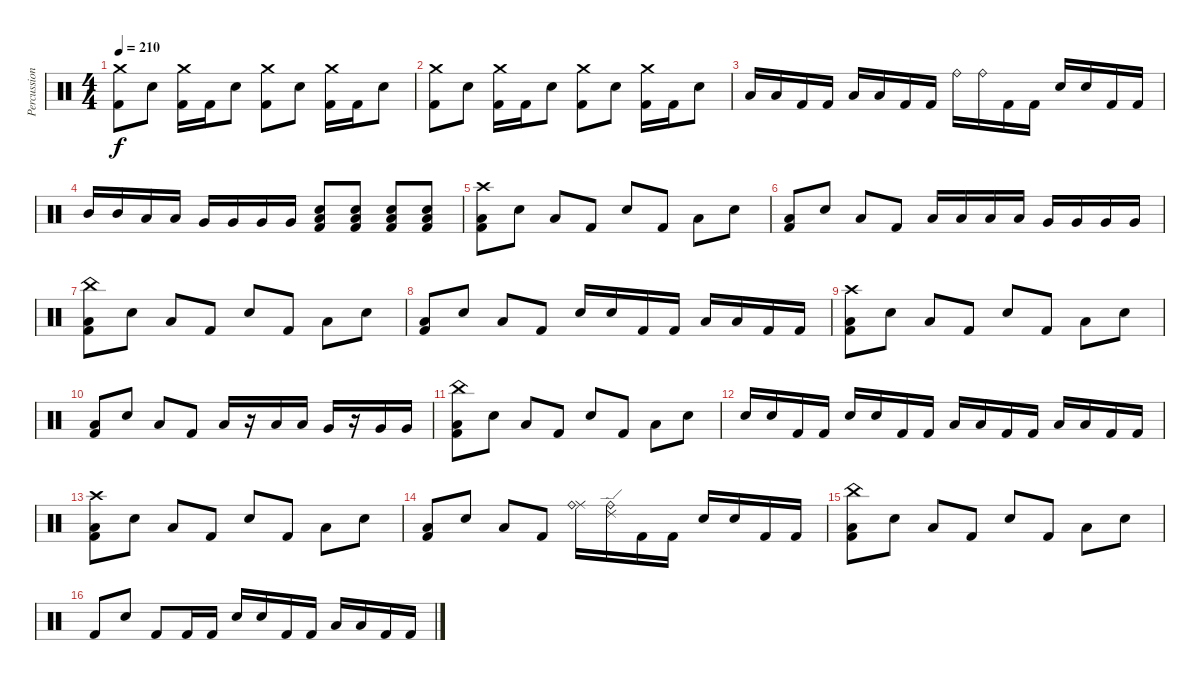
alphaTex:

\track ("Percussion" "Percussion") {instrument percussion}
\staff {score}
\articulation defaults
\ts (4 4)
\tempo 210
\clef neutral
\ks c
("Crash medium (hit)" "Kick (hit) 2").8{dy f} "Electric Snare (hit)".8 ("Crash medium (hit)" "Kick (hit) 2").16 "Kick (hit) 2".16 "Electric Snare (hit)".8 ("Crash medium (hit)" "Kick (hit) 2").8 "Electric Snare (hit)".8 ("Crash medium (hit)" "Kick (hit) 2").16 "Kick (hit) 2".16 "Electric Snare (hit)".8 |
("Crash medium (hit)" "Kick (hit) 2").8 "Electric Snare (hit)".8 ("Crash medium (hit)" "Kick (hit) 2").16 "Kick (hit) 2".16 "Electric Snare (hit)".8 ("Crash medium (hit)" "Kick (hit) 2").8 "Electric Snare (hit)".8 ("Crash medium (hit)" "Kick (hit) 2").16 "Kick (hit) 2".16 "Electric Snare (hit)".8 |
"Low Tom (hit)".16 "Low Tom (hit)".16 "Kick (hit) 2".16 "Kick (hit) 2".16 "Low Floor Tom (hit)".16 "Low Floor Tom (hit)".16 "Kick (hit) 2".16 "Kick (hit) 2".16 "Ride (bell)".16 "Ride (bell)".16 "Kick (hit) 2".16 "Kick (hit) 2".16 "Electric Snare (hit)".16 "Electric Snare (hit)".16 "Kick (hit) 2".16 "Kick (hit) 2".16 |
"Mid Tom (hit)".16 "Mid Tom (hit)".16 "Low Tom (hit)".16 "Low Tom (hit)".16 "Very Low Tom (hit)".16 "Very Low Tom (hit)".16 "Very Low Tom (hit)".16 "Very Low Tom (hit)".16 ("Electric Snare (hit)" "Low Floor Tom (hit)" "Kick (hit) 2").8 ("Electric Snare (hit)" "Low Floor Tom (hit)" "Kick (hit) 2").8 ("Electric Snare (hit)" "Low Floor Tom (hit)" "Kick (hit) 2").8 ("Electric Snare (hit)" "Low Floor Tom (hit)" "Kick (hit) 2").8 |
("Crash high (hit)" "Low Floor Tom (hit)" "Kick (hit) 2").8 "Electric Snare (hit)".8 "Low Floor Tom (hit)".8 "Kick (hit) 2".8 "Electric Snare (hit)".8 "Kick (hit) 2".8 "Low Floor Tom (hit)".8 "Electric Snare (hit)".8 |
("Low Floor Tom (hit)" "Kick (hit) 2").8 "Electric Snare (hit)".8 "Low Floor Tom (hit)".8 "Kick (hit) 2".8 "Low Tom (hit)".16 "Low Tom (hit)".16 "Low Tom (hit)".16 "Low Tom (hit)".16 "Very Low Tom (hit)".16 "Very Low Tom (hit)".16 "Very Low Tom (hit)".16 "Very Low Tom (hit)".16 |
("China (hit)" "Low Floor Tom (hit)" "Kick (hit) 2").8 "Electric Snare (hit)".8 "Low Floor Tom (hit)".8 "Kick (hit) 2".8 "Electric Snare (hit)".8 "Kick (hit) 2".8 "Low Floor Tom (hit)".8 "Electric Snare (hit)".8 |
("Low Floor Tom (hit)" "Kick (hit) 2").8 "Electric Snare (hit)".8 "Low Floor Tom (hit)".8 "Kick (hit) 2".8 "Electric Snare (hit)".16 "Electric Snare (hit)".16 "Kick (hit) 2".16 "Kick (hit) 2".16 "Low Floor Tom (hit)".16 "Low Floor Tom (hit)".16 "Kick (hit) 2".16 "Kick (hit) 2".16 |
("Crash high (hit)" "Low Floor Tom (hit)" "Kick (hit) 2").8 "Electric Snare (hit)".8 "Low Floor Tom (hit)".8 "Kick (hit) 2".8 "Electric Snare (hit)".8 "Kick (hit) 2".8 "Low Floor Tom (hit)".8 "Electric Snare (hit)".8 |
("Low Floor Tom (hit)" "Kick (hit) 2").8 "Electric Snare (hit)".8 "Low Floor Tom (hit)".8 "Kick (hit) 2".8 "Low Tom (hit)".16 r.16 "Low Tom (hit)".16 "Low Tom (hit)".16 "Very Low Tom (hit)".16 r.16 "Very Low Tom (hit)".16 "Very Low Tom (hit)".16 |
("China (hit)" "Low Floor Tom (hit)" "Kick (hit) 2").8 "Electric Snare (hit)".8 "Low Floor Tom (hit)".8 "Kick (hit) 2".8 "Electric Snare (hit)".8 "Kick (hit) 2".8 "Low Floor Tom (hit)".8 "Electric Snare (hit)".8 |
"Electric Snare (hit)".16 "Electric Snare (hit)".16 "Kick (hit) 2".16 "Kick (hit) 2".16 "Electric Snare (hit)".16 "Electric Snare (hit)".16 "Kick (hit) 2".16 "Kick (hit) 2".16 "Low Floor Tom (hit)".16 "Low Floor Tom (hit)".16 "Kick (hit) 2".16 "Kick (hit) 2".16 "Low Floor Tom (hit)".16 "Low Floor Tom (hit)".16 "Kick (hit) 2".16 "Kick (hit) 2".16 |
("Crash high (hit)" "Low Floor Tom (hit)" "Kick (hit) 2").8 "Electric Snare (hit)".8 "Low Floor Tom (hit)".8 "Kick (hit) 2".8 "Electric Snare (hit)".8 "Kick (hit) 2".8 "Low Floor Tom (hit)".8 "Electric Snare (hit)".8 |
("Low Floor Tom (hit)" "Kick (hit) 2").8 "Electric Snare (hit)".8 "Low Floor Tom (hit)".8 "Kick (hit) 2".8 ("Ride (middle)" "Ride (bell)").16 ("Ride (edge) 2" "Ride (bell)").16 "Kick (hit) 2".16 "Kick (hit) 2".16 "Electric Snare (hit)".16 "Electric Snare (hit)".16 "Kick (hit) 2".16 "Kick (hit) 2".16 |
("China (hit)" "Low Floor Tom (hit)" "Kick (hit) 2").8 "Electric Snare (hit)".8 "Low Floor Tom (hit)".8 "Kick (hit) 2".8 "Electric Snare (hit)".8 "Kick (hit) 2".8 "Low Floor Tom (hit)".8 "Electric Snare (hit)".8 |
"Kick (hit) 2".8 "Electric Snare (hit)".8 "Kick (hit) 2".8 "Kick (hit) 2".16 "Kick (hit) 2".16 "Electric Snare (hit)".16 "Electric Snare (hit)".16 "Kick (hit) 2".16 "Kick (hit) 2".16 "Low Floor Tom (hit)".16 "Low Floor Tom (hit)".16 "Kick (hit) 2".16 "Kick (hit) 2".16
